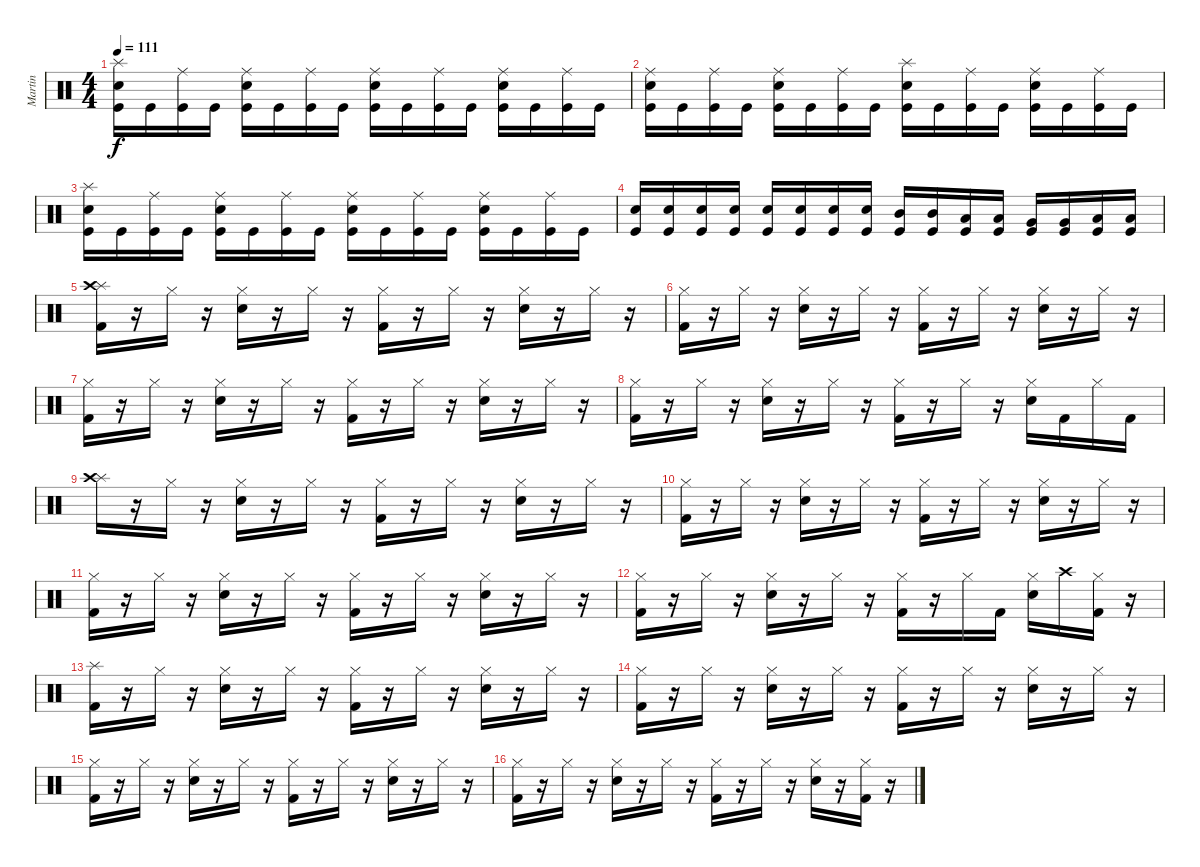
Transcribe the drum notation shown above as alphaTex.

\track ("Martin" "Martin") {instrument percussion}
\staff {score}
\articulation defaults
\ts (4 4)
\tempo 111
\clef neutral
\ks c
("Kick (hit)" "Electric Snare (hit)" "Splash (hit)").16{dy f} "Kick (hit)".16 ("Kick (hit)" "Ride (middle)").16 "Kick (hit)".16 ("Kick (hit)" "Electric Snare (hit)" "Ride (middle)").16 "Kick (hit)".16 ("Kick (hit)" "Ride (middle)").16 "Kick (hit)".16 ("Kick (hit)" "Electric Snare (hit)" "Ride (middle)").16 "Kick (hit)".16 ("Kick (hit)" "Ride (middle)").16 "Kick (hit)".16 ("Kick (hit)" "Electric Snare (hit)" "Ride (middle)").16 "Kick (hit)".16 ("Kick (hit)" "Ride (middle)").16 "Kick (hit)".16 |
("Kick (hit)" "Electric Snare (hit)" "Ride (middle)").16 "Kick (hit)".16 ("Kick (hit)" "Ride (middle)").16 "Kick (hit)".16 ("Kick (hit)" "Electric Snare (hit)" "Ride (middle)").16 "Kick (hit)".16 ("Kick (hit)" "Ride (middle)").16 "Kick (hit)".16 ("Kick (hit)" "Electric Snare (hit)" "Splash (hit)").16 "Kick (hit)".16 ("Kick (hit)" "Ride (middle)").16 "Kick (hit)".16 ("Kick (hit)" "Electric Snare (hit)" "Ride (middle)").16 "Kick (hit)".16 ("Kick (hit)" "Ride (middle)").16 "Kick (hit)".16 |
("Kick (hit)" "Electric Snare (hit)" "Splash (hit)").16 "Kick (hit)".16 ("Kick (hit)" "Ride (middle)").16 "Kick (hit)".16 ("Kick (hit)" "Electric Snare (hit)" "Ride (middle)").16 "Kick (hit)".16 ("Kick (hit)" "Ride (middle)").16 "Kick (hit)".16 ("Kick (hit)" "Electric Snare (hit)" "Ride (middle)").16 "Kick (hit)".16 ("Kick (hit)" "Ride (middle)").16 "Kick (hit)".16 ("Kick (hit)" "Electric Snare (hit)" "Ride (middle)").16 "Kick (hit)".16 ("Kick (hit)" "Ride (middle)").16 "Kick (hit)".16 |
("Kick (hit)" "Electric Snare (hit)").16 ("Kick (hit)" "Electric Snare (hit)").16 ("Kick (hit)" "Electric Snare (hit)").16 ("Kick (hit)" "Electric Snare (hit)").16 ("Kick (hit)" "Electric Snare (hit)").16 ("Kick (hit)" "Electric Snare (hit)").16 ("Kick (hit)" "Electric Snare (hit)").16 ("Kick (hit)" "Electric Snare (hit)").16 ("Kick (hit)" "Mid Tom (hit)").16 ("Kick (hit)" "Mid Tom (hit)").16 ("Kick (hit)" "Low Tom (hit)").16 ("Kick (hit)" "Low Tom (hit)").16 ("Kick (hit)" "Very Low Tom (hit)").16 ("Kick (hit)" "Very Low Tom (hit)").16 ("Kick (hit)" "Low Floor Tom (hit)").16 ("Kick (hit)" "Low Floor Tom (hit)").16 |
("Kick (hit) 2" "Splash (hit)" "Crash high (hit)").16 r.16 "Hi-Hat (closed)".16 r.16 ("Electric Snare (hit)" "Hi-Hat (closed)").16 r.16 "Hi-Hat (closed)".16 r.16 ("Kick (hit) 2" "Hi-Hat (closed)").16 r.16 "Hi-Hat (closed)".16 r.16 ("Electric Snare (hit)" "Hi-Hat (closed)").16 r.16 "Hi-Hat (closed)".16 r.16 |
("Kick (hit) 2" "Hi-Hat (closed)").16 r.16 "Hi-Hat (closed)".16 r.16 ("Electric Snare (hit)" "Hi-Hat (closed)").16 r.16 "Hi-Hat (closed)".16 r.16 ("Kick (hit) 2" "Hi-Hat (closed)").16 r.16 "Hi-Hat (closed)".16 r.16 ("Electric Snare (hit)" "Hi-Hat (closed)").16 r.16 "Hi-Hat (closed)".16 r.16 |
("Kick (hit) 2" "Hi-Hat (closed)").16 r.16 "Hi-Hat (closed)".16 r.16 ("Electric Snare (hit)" "Hi-Hat (closed)").16 r.16 "Hi-Hat (closed)".16 r.16 ("Kick (hit) 2" "Hi-Hat (closed)").16 r.16 "Hi-Hat (closed)".16 r.16 ("Electric Snare (hit)" "Hi-Hat (closed)").16 r.16 "Hi-Hat (closed)".16 r.16 |
("Kick (hit) 2" "Hi-Hat (closed)").16 r.16 "Hi-Hat (closed)".16 r.16 ("Electric Snare (hit)" "Hi-Hat (closed)").16 r.16 "Hi-Hat (closed)".16 r.16 ("Kick (hit) 2" "Hi-Hat (closed)").16 r.16 "Hi-Hat (closed)".16 r.16 ("Electric Snare (hit)" "Hi-Hat (closed)").16 "Kick (hit) 2".16 "Hi-Hat (closed)".16 "Kick (hit) 2".16 |
("Splash (hit)" "Crash high (hit)").16 r.16 "Hi-Hat (closed)".16 r.16 ("Electric Snare (hit)" "Hi-Hat (closed)").16 r.16 "Hi-Hat (closed)".16 r.16 ("Kick (hit) 2" "Hi-Hat (closed)").16 r.16 "Hi-Hat (closed)".16 r.16 ("Electric Snare (hit)" "Hi-Hat (closed)").16 r.16 "Hi-Hat (closed)".16 r.16 |
("Kick (hit) 2" "Hi-Hat (closed)").16 r.16 "Hi-Hat (closed)".16 r.16 ("Electric Snare (hit)" "Hi-Hat (closed)").16 r.16 "Hi-Hat (closed)".16 r.16 ("Kick (hit) 2" "Hi-Hat (closed)").16 r.16 "Hi-Hat (closed)".16 r.16 ("Electric Snare (hit)" "Hi-Hat (closed)").16 r.16 "Hi-Hat (closed)".16 r.16 |
("Kick (hit) 2" "Hi-Hat (closed)").16 r.16 "Hi-Hat (closed)".16 r.16 ("Electric Snare (hit)" "Hi-Hat (closed)").16 r.16 "Hi-Hat (closed)".16 r.16 ("Kick (hit) 2" "Hi-Hat (closed)").16 r.16 "Hi-Hat (closed)".16 r.16 ("Electric Snare (hit)" "Hi-Hat (closed)").16 r.16 "Hi-Hat (closed)".16 r.16 |
("Kick (hit) 2" "Hi-Hat (closed)").16 r.16 "Hi-Hat (closed)".16 r.16 ("Electric Snare (hit)" "Hi-Hat (closed)").16 r.16 "Hi-Hat (closed)".16 r.16 ("Kick (hit) 2" "Hi-Hat (closed)").16 r.16 "Hi-Hat (closed)".16 "Kick (hit) 2".16 ("Electric Snare (hit)" "Hi-Hat (closed)").16 "Crash high (hit)".16 ("Kick (hit) 2" "Hi-Hat (closed)").16 r.16 |
("Kick (hit) 2" "Splash (hit)").16 r.16 "Hi-Hat (closed)".16 r.16 ("Electric Snare (hit)" "Hi-Hat (closed)").16 r.16 "Hi-Hat (closed)".16 r.16 ("Kick (hit) 2" "Hi-Hat (closed)").16 r.16 "Hi-Hat (closed)".16 r.16 ("Electric Snare (hit)" "Hi-Hat (closed)").16 r.16 "Hi-Hat (closed)".16 r.16 |
("Kick (hit) 2" "Hi-Hat (closed)").16 r.16 "Hi-Hat (closed)".16 r.16 ("Electric Snare (hit)" "Hi-Hat (closed)").16 r.16 "Hi-Hat (closed)".16 r.16 ("Kick (hit) 2" "Hi-Hat (closed)").16 r.16 "Hi-Hat (closed)".16 r.16 ("Electric Snare (hit)" "Hi-Hat (closed)").16 r.16 "Hi-Hat (closed)".16 r.16 |
("Kick (hit) 2" "Hi-Hat (closed)").16 r.16 "Hi-Hat (closed)".16 r.16 ("Electric Snare (hit)" "Hi-Hat (closed)").16 r.16 "Hi-Hat (closed)".16 r.16 ("Kick (hit) 2" "Hi-Hat (closed)").16 r.16 "Hi-Hat (closed)".16 r.16 ("Electric Snare (hit)" "Hi-Hat (closed)").16 r.16 "Hi-Hat (closed)".16 r.16 |
("Kick (hit) 2" "Hi-Hat (closed)").16 r.16 "Hi-Hat (closed)".16 r.16 ("Electric Snare (hit)" "Hi-Hat (closed)").16 r.16 "Hi-Hat (closed)".16 r.16 ("Kick (hit) 2" "Hi-Hat (closed)").16 r.16 "Hi-Hat (closed)".16 r.16 ("Electric Snare (hit)" "Hi-Hat (closed)").16 r.16 ("Kick (hit) 2" "Hi-Hat (closed)").16 r.16
